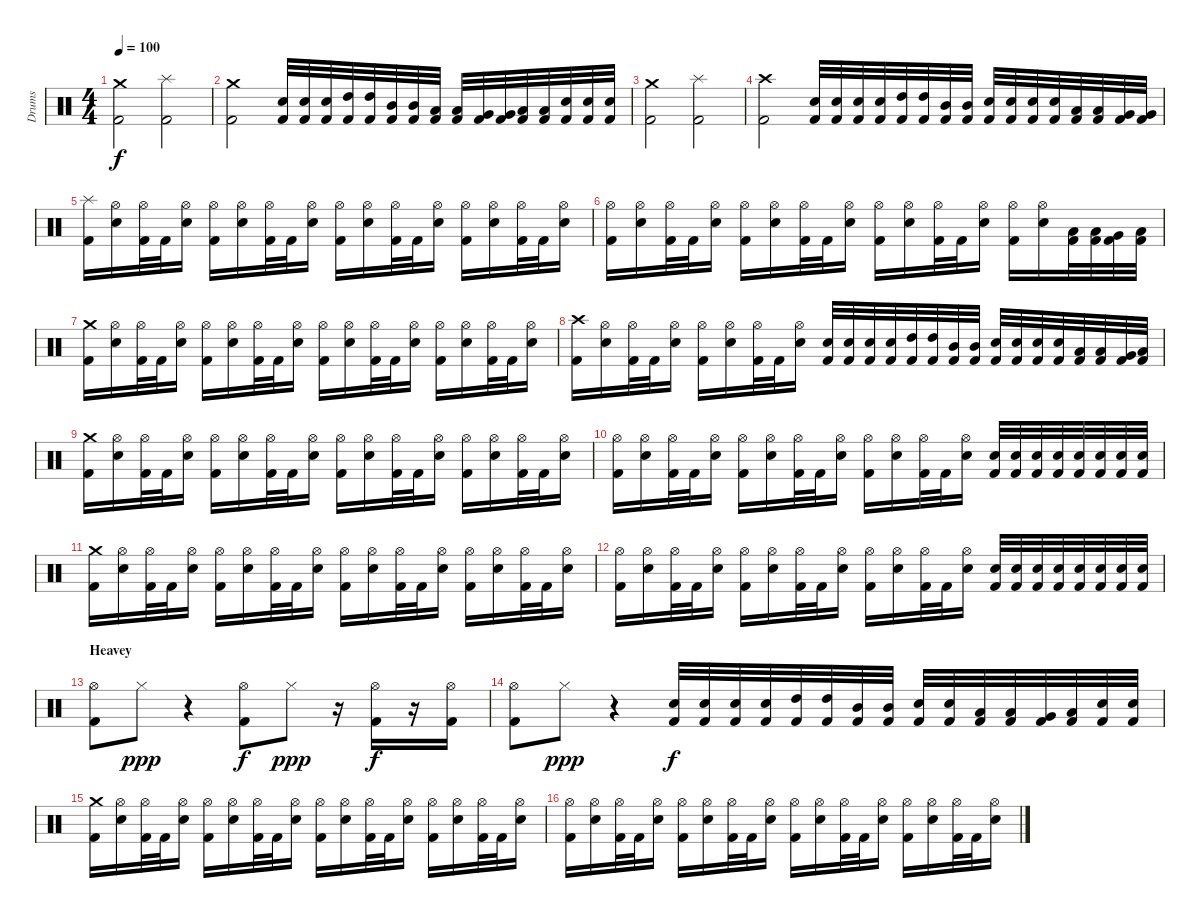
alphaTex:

\track ("Drums" "Drums") {instrument percussion}
\staff {score}
\articulation defaults
\ts (4 4)
\tempo 100
\clef neutral
\ks c
("Kick (hit) 2" "Crash medium (hit)").2{dy f} ("Kick (hit) 2" "Splash (hit)").2 |
("Kick (hit) 2" "Crash medium (hit)").2 ("Kick (hit) 2" "Snare (hit) 2").32 ("Kick (hit) 2" "Snare (hit) 2").32 ("Kick (hit) 2" "Snare (hit) 2").32 ("Kick (hit) 2" "High Tom (hit)").32 ("Kick (hit) 2" "High Tom (hit)").32 ("Kick (hit) 2" "Mid Tom (hit)").32 ("Kick (hit) 2" "Mid Tom (hit)").32 ("Kick (hit) 2" "Low Tom (hit)").32 ("Kick (hit) 2" "Low Tom (hit)").32 ("Kick (hit) 2" "Very Low Tom (hit)").32 ("Kick (hit) 2" "Very Low Tom (hit)").32 ("Kick (hit) 2" "Low Floor Tom (hit)").32 ("Kick (hit) 2" "Low Floor Tom (hit)").32 ("Kick (hit) 2" "Snare (hit) 2").32 ("Kick (hit) 2" "Snare (hit) 2").32 ("Kick (hit) 2" "Snare (hit) 2").32 |
("Kick (hit) 2" "Crash medium (hit)").2 ("Kick (hit) 2" "Splash (hit)").2 |
("Kick (hit) 2" "Crash high (hit)").2 ("Kick (hit) 2" "Snare (hit) 2").32 ("Kick (hit) 2" "Snare (hit) 2").32 ("Kick (hit) 2" "Snare (hit) 2").32 ("Kick (hit) 2" "Snare (hit) 2").32 ("Kick (hit) 2" "High Tom (hit)").32 ("Kick (hit) 2" "High Tom (hit)").32 ("Kick (hit) 2" "Mid Tom (hit)").32 ("Kick (hit) 2" "Mid Tom (hit)").32 ("Kick (hit) 2" "Snare (hit) 2").32 ("Kick (hit) 2" "Snare (hit) 2").32 ("Kick (hit) 2" "Snare (hit) 2").32 ("Kick (hit) 2" "Snare (hit) 2").32 ("Kick (hit) 2" "Low Tom (hit)").32 ("Kick (hit) 2" "Low Tom (hit)").32 ("Kick (hit) 2" "Very Low Tom (hit)").32 ("Kick (hit) 2" "Very Low Tom (hit)").32 |
\section ("" "")
("Kick (hit) 2" "Splash (hit)").16 ("Snare (hit) 2" "Hi-Hat (open)").16 ("Kick (hit) 2" "Hi-Hat (open)").32 "Kick (hit) 2".32 ("Snare (hit) 2" "Hi-Hat (open)").16 ("Kick (hit) 2" "Hi-Hat (open)").16 ("Snare (hit) 2" "Hi-Hat (open)").16 ("Kick (hit) 2" "Hi-Hat (open)").32 "Kick (hit) 2".32 ("Snare (hit) 2" "Hi-Hat (open)").16 ("Kick (hit) 2" "Hi-Hat (open)").16 ("Snare (hit) 2" "Hi-Hat (open)").16 ("Kick (hit) 2" "Hi-Hat (open)").32 "Kick (hit) 2".32 ("Snare (hit) 2" "Hi-Hat (open)").16 ("Kick (hit) 2" "Hi-Hat (open)").16 ("Snare (hit) 2" "Hi-Hat (open)").16 ("Kick (hit) 2" "Hi-Hat (open)").32 "Kick (hit) 2".32 ("Snare (hit) 2" "Hi-Hat (open)").16 |
("Kick (hit) 2" "Hi-Hat (open)").16 ("Snare (hit) 2" "Hi-Hat (open)").16 ("Kick (hit) 2" "Hi-Hat (open)").32 "Kick (hit) 2".32 ("Snare (hit) 2" "Hi-Hat (open)").16 ("Kick (hit) 2" "Hi-Hat (open)").16 ("Snare (hit) 2" "Hi-Hat (open)").16 ("Kick (hit) 2" "Hi-Hat (open)").32 "Kick (hit) 2".32 ("Snare (hit) 2" "Hi-Hat (open)").16 ("Kick (hit) 2" "Hi-Hat (open)").16 ("Snare (hit) 2" "Hi-Hat (open)").16 ("Kick (hit) 2" "Hi-Hat (open)").32 "Kick (hit) 2".32 ("Snare (hit) 2" "Hi-Hat (open)").16 ("Kick (hit) 2" "Hi-Hat (open)").16 ("Snare (hit) 2" "Hi-Hat (open)").16 ("Kick (hit) 2" "Low Tom (hit)").32 ("Kick (hit) 2" "Low Tom (hit)").32 ("Kick (hit) 2" "Very Low Tom (hit)").32 ("Kick (hit) 2" "Low Floor Tom (hit)").32 |
("Kick (hit) 2" "Crash medium (hit)").16 ("Snare (hit) 2" "Hi-Hat (open)").16 ("Kick (hit) 2" "Hi-Hat (open)").32 "Kick (hit) 2".32 ("Snare (hit) 2" "Hi-Hat (open)").16 ("Kick (hit) 2" "Hi-Hat (open)").16 ("Snare (hit) 2" "Hi-Hat (open)").16 ("Kick (hit) 2" "Hi-Hat (open)").32 "Kick (hit) 2".32 ("Snare (hit) 2" "Hi-Hat (open)").16 ("Kick (hit) 2" "Hi-Hat (open)").16 ("Snare (hit) 2" "Hi-Hat (open)").16 ("Kick (hit) 2" "Hi-Hat (open)").32 "Kick (hit) 2".32 ("Snare (hit) 2" "Hi-Hat (open)").16 ("Kick (hit) 2" "Hi-Hat (open)").16 ("Snare (hit) 2" "Hi-Hat (open)").16 ("Kick (hit) 2" "Hi-Hat (open)").32 "Kick (hit) 2".32 ("Snare (hit) 2" "Hi-Hat (open)").16 |
("Kick (hit) 2" "Crash high (hit)").16 ("Snare (hit) 2" "Hi-Hat (open)").16 ("Kick (hit) 2" "Hi-Hat (open)").32 "Kick (hit) 2".32 ("Snare (hit) 2" "Hi-Hat (open)").16 ("Kick (hit) 2" "Hi-Hat (open)").16 ("Snare (hit) 2" "Hi-Hat (open)").16 ("Kick (hit) 2" "Hi-Hat (open)").32 "Kick (hit) 2".32 ("Snare (hit) 2" "Hi-Hat (open)").16 ("Kick (hit) 2" "Snare (hit) 2").32 ("Kick (hit) 2" "Snare (hit) 2").32 ("Kick (hit) 2" "Snare (hit) 2").32 ("Kick (hit) 2" "Snare (hit) 2").32 ("Kick (hit) 2" "High Tom (hit)").32 ("Kick (hit) 2" "High Tom (hit)").32 ("Kick (hit) 2" "Mid Tom (hit)").32 ("Kick (hit) 2" "Mid Tom (hit)").32 ("Kick (hit) 2" "Snare (hit) 2").32 ("Kick (hit) 2" "Snare (hit) 2").32 ("Kick (hit) 2" "Snare (hit) 2").32 ("Kick (hit) 2" "Snare (hit) 2").32 ("Kick (hit) 2" "Low Tom (hit)").32 ("Kick (hit) 2" "Low Tom (hit)").32 ("Kick (hit) 2" "Very Low Tom (hit)").32 ("Kick (hit) 2" "Low Floor Tom (hit)").32 |
("Kick (hit) 2" "Crash medium (hit)").16 ("Snare (hit) 2" "Hi-Hat (open)").16 ("Kick (hit) 2" "Hi-Hat (open)").32 "Kick (hit) 2".32 ("Snare (hit) 2" "Hi-Hat (open)").16 ("Kick (hit) 2" "Hi-Hat (open)").16 ("Snare (hit) 2" "Hi-Hat (open)").16 ("Kick (hit) 2" "Hi-Hat (open)").32 "Kick (hit) 2".32 ("Snare (hit) 2" "Hi-Hat (open)").16 ("Kick (hit) 2" "Hi-Hat (open)").16 ("Snare (hit) 2" "Hi-Hat (open)").16 ("Kick (hit) 2" "Hi-Hat (open)").32 "Kick (hit) 2".32 ("Snare (hit) 2" "Hi-Hat (open)").16 ("Kick (hit) 2" "Hi-Hat (open)").16 ("Snare (hit) 2" "Hi-Hat (open)").16 ("Kick (hit) 2" "Hi-Hat (open)").32 "Kick (hit) 2".32 ("Snare (hit) 2" "Hi-Hat (open)").16 |
("Kick (hit) 2" "Hi-Hat (open)").16 ("Snare (hit) 2" "Hi-Hat (open)").16 ("Kick (hit) 2" "Hi-Hat (open)").32 "Kick (hit) 2".32 ("Snare (hit) 2" "Hi-Hat (open)").16 ("Kick (hit) 2" "Hi-Hat (open)").16 ("Snare (hit) 2" "Hi-Hat (open)").16 ("Kick (hit) 2" "Hi-Hat (open)").32 "Kick (hit) 2".32 ("Snare (hit) 2" "Hi-Hat (open)").16 ("Kick (hit) 2" "Hi-Hat (open)").16 ("Snare (hit) 2" "Hi-Hat (open)").16 ("Kick (hit) 2" "Hi-Hat (open)").32 "Kick (hit) 2".32 ("Snare (hit) 2" "Hi-Hat (open)").16 ("Kick (hit) 2" "Snare (hit) 2").32 ("Kick (hit) 2" "Snare (hit) 2").32 ("Kick (hit) 2" "Snare (hit) 2").32 ("Kick (hit) 2" "Snare (hit) 2").32 ("Kick (hit) 2" "Snare (hit) 2").32 ("Kick (hit) 2" "Snare (hit) 2").32 ("Kick (hit) 2" "Snare (hit) 2").32 ("Kick (hit) 2" "Snare (hit) 2").32 |
("Kick (hit) 2" "Crash medium (hit)").16 ("Snare (hit) 2" "Hi-Hat (open)").16 ("Kick (hit) 2" "Hi-Hat (open)").32 "Kick (hit) 2".32 ("Snare (hit) 2" "Hi-Hat (open)").16 ("Kick (hit) 2" "Hi-Hat (open)").16 ("Snare (hit) 2" "Hi-Hat (open)").16 ("Kick (hit) 2" "Hi-Hat (open)").32 "Kick (hit) 2".32 ("Snare (hit) 2" "Hi-Hat (open)").16 ("Kick (hit) 2" "Hi-Hat (open)").16 ("Snare (hit) 2" "Hi-Hat (open)").16 ("Kick (hit) 2" "Hi-Hat (open)").32 "Kick (hit) 2".32 ("Snare (hit) 2" "Hi-Hat (open)").16 ("Kick (hit) 2" "Hi-Hat (open)").16 ("Snare (hit) 2" "Hi-Hat (open)").16 ("Kick (hit) 2" "Hi-Hat (open)").32 "Kick (hit) 2".32 ("Snare (hit) 2" "Hi-Hat (open)").16 |
("Kick (hit) 2" "Hi-Hat (open)").16 ("Snare (hit) 2" "Hi-Hat (open)").16 ("Kick (hit) 2" "Hi-Hat (open)").32 "Kick (hit) 2".32 ("Snare (hit) 2" "Hi-Hat (open)").16 ("Kick (hit) 2" "Hi-Hat (open)").16 ("Snare (hit) 2" "Hi-Hat (open)").16 ("Kick (hit) 2" "Hi-Hat (open)").32 "Kick (hit) 2".32 ("Snare (hit) 2" "Hi-Hat (open)").16 ("Kick (hit) 2" "Hi-Hat (open)").16 ("Snare (hit) 2" "Hi-Hat (open)").16 ("Kick (hit) 2" "Hi-Hat (open)").32 "Kick (hit) 2".32 ("Snare (hit) 2" "Hi-Hat (open)").16 ("Kick (hit) 2" "Snare (hit) 2").32 ("Kick (hit) 2" "Snare (hit) 2").32 ("Kick (hit) 2" "Snare (hit) 2").32 ("Kick (hit) 2" "Snare (hit) 2").32 ("Kick (hit) 2" "Snare (hit) 2").32 ("Kick (hit) 2" "Snare (hit) 2").32 ("Kick (hit) 2" "Snare (hit) 2").32 ("Kick (hit) 2" "Snare (hit) 2").32 |
\section ("" "Heavey")
("Kick (hit) 2" "Hi-Hat (open)").8 "Hi-Hat (closed)".8{dy ppp} r.4 ("Kick (hit) 2" "Hi-Hat (open)").8{dy f} "Hi-Hat (closed)".8{dy ppp} r.16 ("Kick (hit) 2" "Hi-Hat (open)").16{dy f} r.16 ("Kick (hit) 2" "Hi-Hat (open)").16 |
("Kick (hit) 2" "Hi-Hat (open)").8 "Hi-Hat (closed)".8{dy ppp} r.4 ("Kick (hit) 2" "Snare (hit) 2").32{dy f} ("Kick (hit) 2" "Snare (hit) 2").32 ("Kick (hit) 2" "Snare (hit) 2").32 ("Kick (hit) 2" "Snare (hit) 2").32 ("Kick (hit) 2" "High Tom (hit)").32 ("Kick (hit) 2" "High Tom (hit)").32 ("Kick (hit) 2" "Mid Tom (hit)").32 ("Kick (hit) 2" "Mid Tom (hit)").32 ("Kick (hit) 2" "Snare (hit) 2").32 ("Kick (hit) 2" "Snare (hit) 2").32 ("Kick (hit) 2" "Low Tom (hit)").32 ("Kick (hit) 2" "Low Tom (hit)").32 ("Kick (hit) 2" "Very Low Tom (hit)").32 ("Kick (hit) 2" "Low Floor Tom (hit)").32 ("Kick (hit) 2" "Snare (hit) 2").32 ("Kick (hit) 2" "Snare (hit) 2").32 |
("Kick (hit) 2" "Crash medium (hit)").16 ("Snare (hit) 2" "Hi-Hat (open)").16 ("Kick (hit) 2" "Hi-Hat (open)").32 "Kick (hit) 2".32 ("Snare (hit) 2" "Hi-Hat (open)").16 ("Kick (hit) 2" "Hi-Hat (open)").16 ("Snare (hit) 2" "Hi-Hat (open)").16 ("Kick (hit) 2" "Hi-Hat (open)").32 "Kick (hit) 2".32 ("Snare (hit) 2" "Hi-Hat (open)").16 ("Kick (hit) 2" "Hi-Hat (open)").16 ("Snare (hit) 2" "Hi-Hat (open)").16 ("Kick (hit) 2" "Hi-Hat (open)").32 "Kick (hit) 2".32 ("Snare (hit) 2" "Hi-Hat (open)").16 ("Kick (hit) 2" "Hi-Hat (open)").16 ("Snare (hit) 2" "Hi-Hat (open)").16 ("Kick (hit) 2" "Hi-Hat (open)").32 "Kick (hit) 2".32 ("Snare (hit) 2" "Hi-Hat (open)").16 |
("Kick (hit) 2" "Hi-Hat (open)").16 ("Snare (hit) 2" "Hi-Hat (open)").16 ("Kick (hit) 2" "Hi-Hat (open)").32 "Kick (hit) 2".32 ("Snare (hit) 2" "Hi-Hat (open)").16 ("Kick (hit) 2" "Hi-Hat (open)").16 ("Snare (hit) 2" "Hi-Hat (open)").16 ("Kick (hit) 2" "Hi-Hat (open)").32 "Kick (hit) 2".32 ("Snare (hit) 2" "Hi-Hat (open)").16 ("Kick (hit) 2" "Hi-Hat (open)").16 ("Snare (hit) 2" "Hi-Hat (open)").16 ("Kick (hit) 2" "Hi-Hat (open)").32 "Kick (hit) 2".32 ("Snare (hit) 2" "Hi-Hat (open)").16 ("Kick (hit) 2" "Hi-Hat (open)").16 ("Snare (hit) 2" "Hi-Hat (open)").16 ("Kick (hit) 2" "Hi-Hat (open)").32 "Kick (hit) 2".32 ("Snare (hit) 2" "Hi-Hat (open)").16
